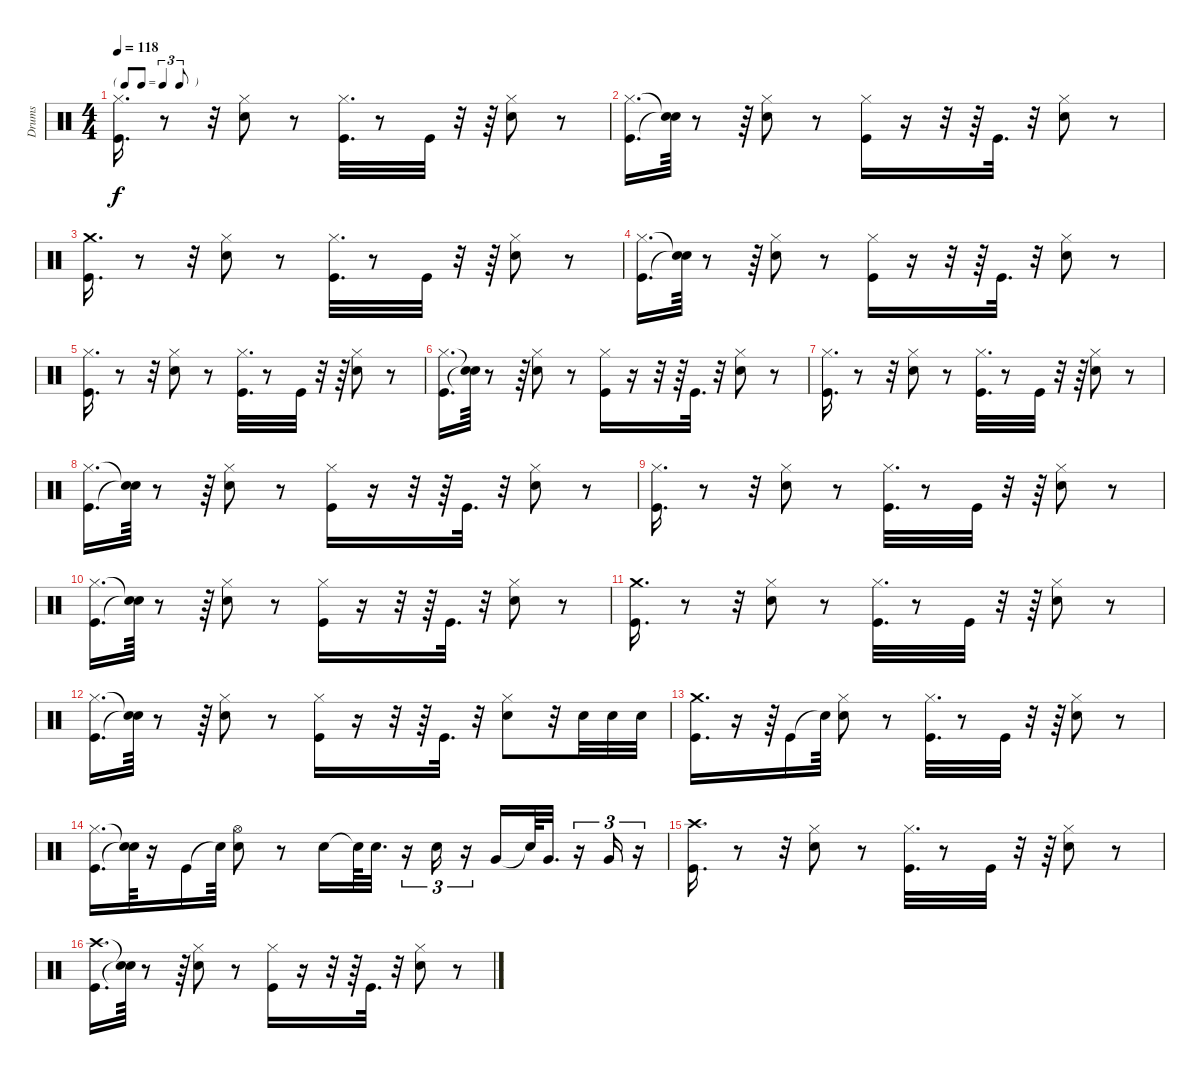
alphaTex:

\track ("Drums" "Drums") {instrument percussion}
\staff {score}
\articulation defaults
\ts (4 4)
\tf triplet8th
\tempo 118
\clef neutral
\ks c
("Hi-Hat (closed)" "Kick (hit)").16{d dy f} r.8 r.32 ("Hi-Hat (closed)" "Snare (hit) 2").8 r.8 ("Hi-Hat (closed)" "Kick (hit)").32{d} r.8 "Kick (hit)".32 r.32 r.64 ("Hi-Hat (closed)" "Snare (hit) 2").8 r.8 |
("Kick (hit)" "Hi-Hat (closed)").16{d} ("Snare (hit)"{t} "Snare (hit)"{t}).64 r.8 r.64 ("Snare (hit) 2" "Hi-Hat (closed)").8 r.8 ("Kick (hit)" "Hi-Hat (closed)").16 r.16 r.32 r.64 "Kick (hit)".32{d} r.32 ("Snare (hit) 2" "Hi-Hat (closed)").8 r.8 |
("Kick (hit)" "Crash medium (hit)").16{d} r.8 r.32 ("Hi-Hat (closed)" "Snare (hit) 2").8 r.8 ("Hi-Hat (closed)" "Kick (hit)").32{d} r.8 "Kick (hit)".32 r.32 r.64 ("Snare (hit) 2" "Hi-Hat (closed)").8 r.8 |
("Kick (hit)" "Hi-Hat (closed)").16{d} ("Snare (hit)"{t} "Snare (hit)"{t}).64 r.8 r.64 ("Snare (hit) 2" "Hi-Hat (closed)").8 r.8 ("Hi-Hat (closed)" "Kick (hit)").16 r.16 r.32 r.64 "Kick (hit)".32{d} r.32 ("Snare (hit) 2" "Hi-Hat (closed)").8 r.8 |
("Kick (hit)" "Hi-Hat (closed)").16{d} r.8 r.32 ("Snare (hit) 2" "Hi-Hat (closed)").8 r.8 ("Kick (hit)" "Hi-Hat (closed)").32{d} r.8 "Kick (hit)".32 r.32 r.64 ("Snare (hit) 2" "Hi-Hat (closed)").8 r.8 |
("Hi-Hat (closed)" "Kick (hit)").16{d} ("Snare (hit)"{t} "Snare (hit)"{t}).64 r.8 r.64 ("Hi-Hat (closed)" "Snare (hit) 2").8 r.8 ("Kick (hit)" "Hi-Hat (closed)").16 r.16 r.32 r.64 "Kick (hit)".32{d} r.32 ("Hi-Hat (closed)" "Snare (hit) 2").8 r.8 |
("Hi-Hat (closed)" "Kick (hit)").16{d} r.8 r.32 ("Snare (hit) 2" "Hi-Hat (closed)").8 r.8 ("Kick (hit)" "Hi-Hat (closed)").32{d} r.8 "Kick (hit)".32 r.32 r.64 ("Hi-Hat (closed)" "Snare (hit) 2").8 r.8 |
("Kick (hit)" "Hi-Hat (closed)").16{d} ("Snare (hit)"{t} "Snare (hit)"{t}).64 r.8 r.64 ("Snare (hit) 2" "Hi-Hat (closed)").8 r.8 ("Kick (hit)" "Hi-Hat (closed)").16 r.16 r.32 r.64 "Kick (hit)".32{d} r.32 ("Hi-Hat (closed)" "Snare (hit) 2").8 r.8 |
("Hi-Hat (closed)" "Kick (hit)").16{d} r.8 r.32 ("Snare (hit) 2" "Hi-Hat (closed)").8 r.8 ("Kick (hit)" "Hi-Hat (closed)").32{d} r.8 "Kick (hit)".32 r.32 r.64 ("Snare (hit) 2" "Hi-Hat (closed)").8 r.8 |
("Kick (hit)" "Hi-Hat (closed)").16{d} ("Snare (hit)"{t} "Snare (hit)"{t}).64 r.8 r.64 ("Hi-Hat (closed)" "Snare (hit) 2").8 r.8 ("Hi-Hat (closed)" "Kick (hit)").16 r.16 r.32 r.64 "Kick (hit)".32{d} r.32 ("Snare (hit) 2" "Hi-Hat (closed)").8 r.8 |
("Kick (hit)" "Crash medium (hit)").16{d} r.8 r.32 ("Hi-Hat (closed)" "Snare (hit) 2").8 r.8 ("Kick (hit)" "Hi-Hat (closed)").32{d} r.8 "Kick (hit)".32 r.32 r.64 ("Snare (hit) 2" "Hi-Hat (closed)").8 r.8 |
("Hi-Hat (closed)" "Kick (hit)").16{d} ("Snare (hit)"{t} "Snare (hit)"{t}).64 r.8 r.64 ("Snare (hit) 2" "Hi-Hat (closed)").8 r.8 ("Kick (hit)" "Hi-Hat (closed)").16 r.16 r.32 r.64 "Kick (hit)".32{d} r.32 ("Snare (hit) 2" "Hi-Hat (closed)").8 r.32 "Snare (hit) 2".32 "Snare (hit) 2".32 "Snare (hit) 2".32 |
("Kick (hit)" "Crash medium (hit)").16{d} r.16 r.64 "Kick (hit)".16 "Snare (hit)"{t}.64 ("Snare (hit) 2" "Hi-Hat (closed)").8 r.8 ("Kick (hit)" "Hi-Hat (closed)").32{d} r.8 "Kick (hit)".32 r.32 r.64 ("Hi-Hat (closed)" "Snare (hit) 2").8 r.8 |
("Hi-Hat (closed)" "Kick (hit)").16{d} ("Snare (hit)"{t} "Snare (hit)"{t}).64 r.16 "Kick (hit)".16 "Snare (hit)"{t}.64 ("Hi-Hat (open)" "Snare (hit) 2").8 r.8 "Snare (hit) 2".16 "Snare (hit)"{t}.64 "Snare (hit) 2".32{d} r.16{tu (3 2)} "Snare (hit) 2".16{tu (3 2)} r.16{tu (3 2)} "Very Low Tom (hit)".16 "Snare (hit)"{t}.64 "Very Low Tom (hit)".32{d} r.16{tu (3 2)} "Very Low Tom (hit)".16{tu (3 2)} r.16{tu (3 2)} |
("Crash high (hit)" "Kick (hit)").16{d} r.8 r.32 ("Hi-Hat (closed)" "Snare (hit) 2").8 r.8 ("Hi-Hat (closed)" "Kick (hit)").32{d} r.8 "Kick (hit)".32 r.32 r.64 ("Hi-Hat (closed)" "Snare (hit) 2").8 r.8 |
("Crash high (hit)" "Kick (hit)").16{d} ("Snare (hit)"{t} "Snare (hit)"{t}).64 r.8 r.64 ("Snare (hit) 2" "Hi-Hat (closed)").8 r.8 ("Hi-Hat (closed)" "Kick (hit)").16 r.16 r.32 r.64 "Kick (hit)".32{d} r.32 ("Hi-Hat (closed)" "Snare (hit) 2").8 r.8
